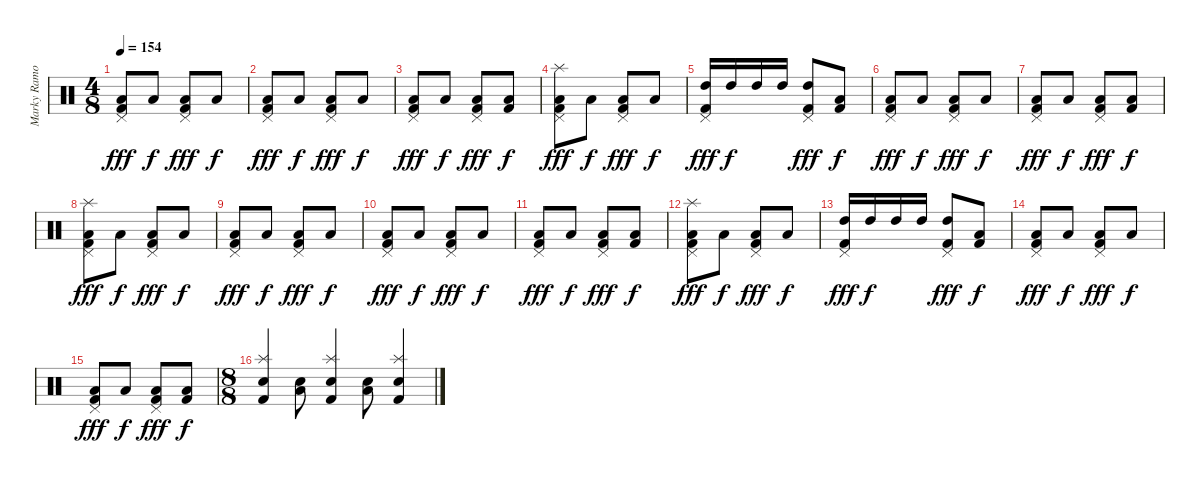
\track ("Marky Ramone - Drums" "Marky Ramo") {instrument percussion}
\staff {score}
\articulation defaults
\ts (4 8)
\tempo 154
\clef neutral
\ks c
("Low Floor Tom (hit)" "Pedal Hi-Hat (hit)" "Kick (hit) 2").8{dy fff} "Low Floor Tom (hit)".8{dy f} ("Low Floor Tom (hit)" "Pedal Hi-Hat (hit)" "Kick (hit) 2").8{dy fff} "Low Floor Tom (hit)".8{dy f} |
("Low Floor Tom (hit)" "Pedal Hi-Hat (hit)" "Kick (hit) 2").8{dy fff} "Low Floor Tom (hit)".8{dy f} ("Low Floor Tom (hit)" "Pedal Hi-Hat (hit)" "Kick (hit) 2").8{dy fff} "Low Floor Tom (hit)".8{dy f} |
("Low Floor Tom (hit)" "Pedal Hi-Hat (hit)" "Kick (hit) 2").8{dy fff} "Low Floor Tom (hit)".8{dy f} ("Low Floor Tom (hit)" "Pedal Hi-Hat (hit)" "Kick (hit) 2").8{dy fff} ("Low Floor Tom (hit)" "Kick (hit) 2").8{dy f} |
("Low Floor Tom (hit)" "Splash (hit)" "Pedal Hi-Hat (hit)" "Kick (hit) 2").8{dy fff} "Low Floor Tom (hit)".8{dy f} ("Low Floor Tom (hit)" "Pedal Hi-Hat (hit)" "Kick (hit) 2").8{dy fff} "Low Floor Tom (hit)".8{dy f} |
("High Tom (hit)" "Pedal Hi-Hat (hit)" "Kick (hit) 2").16{dy fff} "High Tom (hit)".16{dy f} "High Tom (hit)".16 "High Tom (hit)".16 ("High Tom (hit)" "Pedal Hi-Hat (hit)" "Kick (hit) 2").8{dy fff} ("Low Floor Tom (hit)" "Kick (hit) 2").8{dy f} |
("Low Floor Tom (hit)" "Pedal Hi-Hat (hit)" "Kick (hit) 2").8{dy fff} "Low Floor Tom (hit)".8{dy f} ("Low Floor Tom (hit)" "Pedal Hi-Hat (hit)" "Kick (hit) 2").8{dy fff} "Low Floor Tom (hit)".8{dy f} |
("Low Floor Tom (hit)" "Pedal Hi-Hat (hit)" "Kick (hit) 2").8{dy fff} "Low Floor Tom (hit)".8{dy f} ("Low Floor Tom (hit)" "Pedal Hi-Hat (hit)" "Kick (hit) 2").8{dy fff} ("Low Floor Tom (hit)" "Kick (hit) 2").8{dy f} |
("Low Floor Tom (hit)" "Splash (hit)" "Pedal Hi-Hat (hit)" "Kick (hit) 2").8{dy fff} "Low Floor Tom (hit)".8{dy f} ("Low Floor Tom (hit)" "Pedal Hi-Hat (hit)" "Kick (hit) 2").8{dy fff} "Low Floor Tom (hit)".8{dy f} |
("Low Floor Tom (hit)" "Pedal Hi-Hat (hit)" "Kick (hit) 2").8{dy fff} "Low Floor Tom (hit)".8{dy f} ("Low Floor Tom (hit)" "Pedal Hi-Hat (hit)" "Kick (hit) 2").8{dy fff} "Low Floor Tom (hit)".8{dy f} |
("Low Floor Tom (hit)" "Pedal Hi-Hat (hit)" "Kick (hit) 2").8{dy fff} "Low Floor Tom (hit)".8{dy f} ("Low Floor Tom (hit)" "Pedal Hi-Hat (hit)" "Kick (hit) 2").8{dy fff} "Low Floor Tom (hit)".8{dy f} |
("Low Floor Tom (hit)" "Pedal Hi-Hat (hit)" "Kick (hit) 2").8{dy fff} "Low Floor Tom (hit)".8{dy f} ("Low Floor Tom (hit)" "Pedal Hi-Hat (hit)" "Kick (hit) 2").8{dy fff} ("Low Floor Tom (hit)" "Kick (hit) 2").8{dy f} |
("Low Floor Tom (hit)" "Splash (hit)" "Pedal Hi-Hat (hit)" "Kick (hit) 2").8{dy fff} "Low Floor Tom (hit)".8{dy f} ("Low Floor Tom (hit)" "Pedal Hi-Hat (hit)" "Kick (hit) 2").8{dy fff} "Low Floor Tom (hit)".8{dy f} |
("High Tom (hit)" "Pedal Hi-Hat (hit)" "Kick (hit) 2").16{dy fff} "High Tom (hit)".16{dy f} "High Tom (hit)".16 "High Tom (hit)".16 ("High Tom (hit)" "Pedal Hi-Hat (hit)" "Kick (hit) 2").8{dy fff} ("Low Floor Tom (hit)" "Kick (hit) 2").8{dy f} |
("Low Floor Tom (hit)" "Pedal Hi-Hat (hit)" "Kick (hit) 2").8{dy fff} "Low Floor Tom (hit)".8{dy f} ("Low Floor Tom (hit)" "Pedal Hi-Hat (hit)" "Kick (hit) 2").8{dy fff} "Low Floor Tom (hit)".8{dy f} |
("Low Floor Tom (hit)" "Pedal Hi-Hat (hit)" "Kick (hit) 2").8{dy fff} "Low Floor Tom (hit)".8{dy f} ("Low Floor Tom (hit)" "Pedal Hi-Hat (hit)" "Kick (hit) 2").8{dy fff} ("Low Floor Tom (hit)" "Kick (hit) 2").8{dy f} |
\ts (8 8)
("Splash (hit)" "Snare (hit) 2" "Kick (hit) 2").4 ("Low Floor Tom (hit)" "Snare (hit) 2").8 ("Splash (hit)" "Snare (hit) 2" "Kick (hit) 2").4 ("Low Floor Tom (hit)" "Snare (hit) 2").8 ("Splash (hit)" "Snare (hit) 2" "Kick (hit) 2").4
